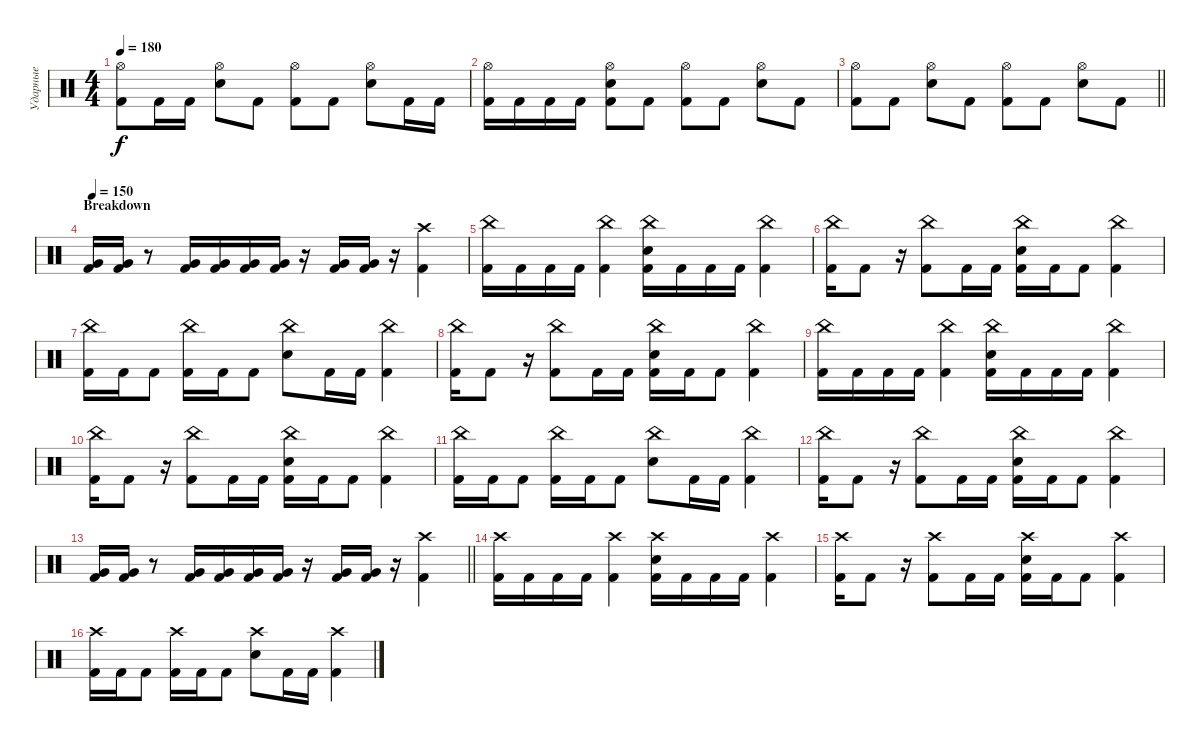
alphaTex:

\track ("Ударные" "Ударные") {instrument percussion}
\staff {score}
\articulation defaults
\ts (4 4)
\tempo 180
\clef neutral
\ks c
("Hi-Hat (open)" "Kick (hit) 2").8{dy f} "Kick (hit) 2".16 "Kick (hit) 2".16 ("Hi-Hat (open)" "Electric Snare (hit)").8 "Kick (hit) 2".8 ("Hi-Hat (open)" "Kick (hit) 2").8 "Kick (hit) 2".8 ("Hi-Hat (open)" "Electric Snare (hit)").8 "Kick (hit) 2".16 "Kick (hit) 2".16 |
("Hi-Hat (open)" "Kick (hit) 2").16 "Kick (hit) 2".16 "Kick (hit) 2".16 "Kick (hit) 2".16 ("Hi-Hat (open)" "Electric Snare (hit)" "Kick (hit) 2").8 "Kick (hit) 2".8 ("Hi-Hat (open)" "Kick (hit) 2").8 "Kick (hit) 2".8 ("Hi-Hat (open)" "Electric Snare (hit)").8 "Kick (hit) 2".8 |
\barLineRight lightlight
("Hi-Hat (open)" "Kick (hit) 2").8 "Kick (hit) 2".8 ("Hi-Hat (open)" "Electric Snare (hit)").8 "Kick (hit) 2".8 ("Hi-Hat (open)" "Kick (hit) 2").8 "Kick (hit) 2".8 ("Hi-Hat (open)" "Electric Snare (hit)").8 "Kick (hit) 2".8 |
\section ("" "Breakdown")
\tempo 150
("Very Low Tom (hit)" "Kick (hit) 2").16 ("Very Low Tom (hit)" "Kick (hit) 2").16 r.8 ("Very Low Tom (hit)" "Kick (hit) 2").16 ("Very Low Tom (hit)" "Kick (hit) 2").16 ("Very Low Tom (hit)" "Kick (hit) 2").16 ("Very Low Tom (hit)" "Kick (hit) 2").16 r.16 ("Very Low Tom (hit)" "Kick (hit) 2").16 ("Very Low Tom (hit)" "Kick (hit) 2").16 r.16 ("Crash high (hit)" "Kick (hit) 2").4 |
("China (hit)" "Kick (hit) 2").16 "Kick (hit) 2".16 "Kick (hit) 2".16 "Kick (hit) 2".16 ("China (hit)" "Kick (hit) 2").4 ("China (hit)" "Electric Snare (hit)" "Kick (hit) 2").16 "Kick (hit) 2".16 "Kick (hit) 2".16 "Kick (hit) 2".16 ("China (hit)" "Kick (hit) 2").4 |
("China (hit)" "Kick (hit) 2").16 "Kick (hit) 2".8 r.16 ("China (hit)" "Kick (hit) 2").8 "Kick (hit) 2".16 "Kick (hit) 2".16 ("China (hit)" "Electric Snare (hit)" "Kick (hit) 2").16 "Kick (hit) 2".16 "Kick (hit) 2".8 ("China (hit)" "Kick (hit) 2").4 |
("China (hit)" "Kick (hit) 2").16 "Kick (hit) 2".16 "Kick (hit) 2".8 ("China (hit)" "Kick (hit) 2").16 "Kick (hit) 2".16 "Kick (hit) 2".8 ("China (hit)" "Electric Snare (hit)").8 "Kick (hit) 2".16 "Kick (hit) 2".16 ("China (hit)" "Kick (hit) 2").4 |
("China (hit)" "Kick (hit) 2").16 "Kick (hit) 2".8 r.16 ("China (hit)" "Kick (hit) 2").8 "Kick (hit) 2".16 "Kick (hit) 2".16 ("China (hit)" "Electric Snare (hit)" "Kick (hit) 2").16 "Kick (hit) 2".16 "Kick (hit) 2".8 ("China (hit)" "Kick (hit) 2").4 |
("China (hit)" "Kick (hit) 2").16 "Kick (hit) 2".16 "Kick (hit) 2".16 "Kick (hit) 2".16 ("China (hit)" "Kick (hit) 2").4 ("China (hit)" "Electric Snare (hit)" "Kick (hit) 2").16 "Kick (hit) 2".16 "Kick (hit) 2".16 "Kick (hit) 2".16 ("China (hit)" "Kick (hit) 2").4 |
("China (hit)" "Kick (hit) 2").16 "Kick (hit) 2".8 r.16 ("China (hit)" "Kick (hit) 2").8 "Kick (hit) 2".16 "Kick (hit) 2".16 ("China (hit)" "Electric Snare (hit)" "Kick (hit) 2").16 "Kick (hit) 2".16 "Kick (hit) 2".8 ("China (hit)" "Kick (hit) 2").4 |
("China (hit)" "Kick (hit) 2").16 "Kick (hit) 2".16 "Kick (hit) 2".8 ("China (hit)" "Kick (hit) 2").16 "Kick (hit) 2".16 "Kick (hit) 2".8 ("China (hit)" "Electric Snare (hit)").8 "Kick (hit) 2".16 "Kick (hit) 2".16 ("China (hit)" "Kick (hit) 2").4 |
("China (hit)" "Kick (hit) 2").16 "Kick (hit) 2".8 r.16 ("China (hit)" "Kick (hit) 2").8 "Kick (hit) 2".16 "Kick (hit) 2".16 ("China (hit)" "Electric Snare (hit)" "Kick (hit) 2").16 "Kick (hit) 2".16 "Kick (hit) 2".8 ("China (hit)" "Kick (hit) 2").4 |
\barLineRight lightlight
("Very Low Tom (hit)" "Kick (hit) 2").16 ("Very Low Tom (hit)" "Kick (hit) 2").16 r.8 ("Very Low Tom (hit)" "Kick (hit) 2").16 ("Very Low Tom (hit)" "Kick (hit) 2").16 ("Very Low Tom (hit)" "Kick (hit) 2").16 ("Very Low Tom (hit)" "Kick (hit) 2").16 r.16 ("Very Low Tom (hit)" "Kick (hit) 2").16 ("Very Low Tom (hit)" "Kick (hit) 2").16 r.16 ("Crash high (hit)" "Kick (hit) 2").4 |
("Crash high (hit)" "Kick (hit) 2").16 "Kick (hit) 2".16 "Kick (hit) 2".16 "Kick (hit) 2".16 ("Crash high (hit)" "Kick (hit) 2").4 ("Crash high (hit)" "Electric Snare (hit)" "Kick (hit) 2").16 "Kick (hit) 2".16 "Kick (hit) 2".16 "Kick (hit) 2".16 ("Crash high (hit)" "Kick (hit) 2").4 |
("Crash high (hit)" "Kick (hit) 2").16 "Kick (hit) 2".8 r.16 ("Crash high (hit)" "Kick (hit) 2").8 "Kick (hit) 2".16 "Kick (hit) 2".16 ("Crash high (hit)" "Electric Snare (hit)" "Kick (hit) 2").16 "Kick (hit) 2".16 "Kick (hit) 2".8 ("Crash high (hit)" "Kick (hit) 2").4 |
("Crash high (hit)" "Kick (hit) 2").16 "Kick (hit) 2".16 "Kick (hit) 2".8 ("Crash high (hit)" "Kick (hit) 2").16 "Kick (hit) 2".16 "Kick (hit) 2".8 ("Crash high (hit)" "Electric Snare (hit)").8 "Kick (hit) 2".16 "Kick (hit) 2".16 ("Crash high (hit)" "Kick (hit) 2").4
